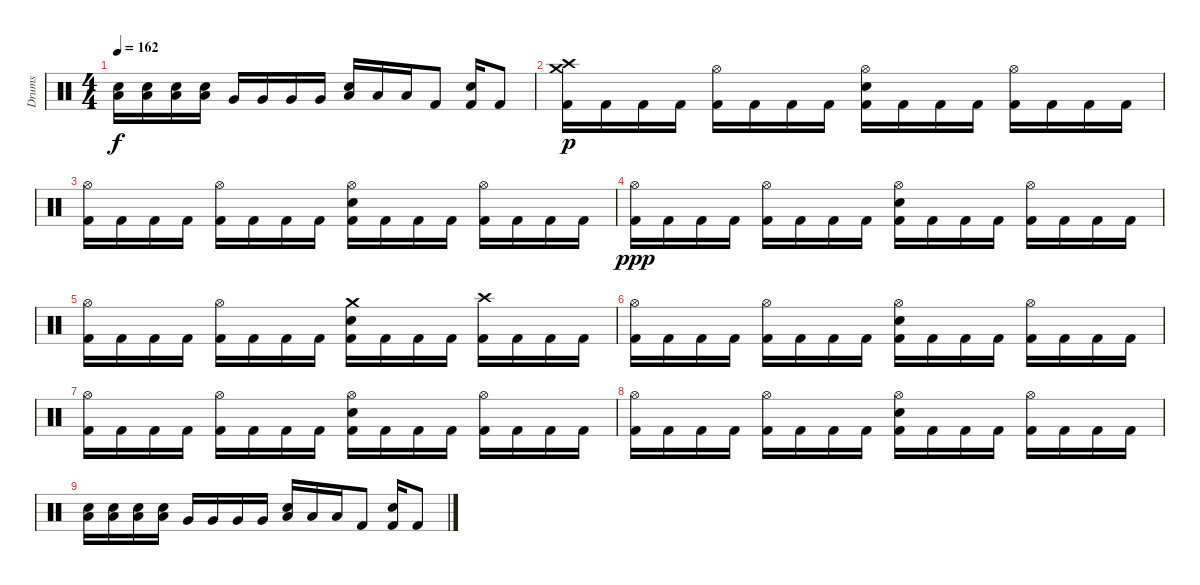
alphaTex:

\track ("Drums" "Drums") {instrument percussion}
\staff {score}
\articulation defaults
\ts (4 4)
\tempo 162
\clef neutral
\ks c
("Electric Snare (hit)" "Low Tom (hit)").16{dy f} ("Electric Snare (hit)" "Low Tom (hit)").16 ("Electric Snare (hit)" "Low Tom (hit)").16 ("Electric Snare (hit)" "Low Tom (hit)").16 "Very Low Tom (hit)".16 "Very Low Tom (hit)".16 "Very Low Tom (hit)".16 "Very Low Tom (hit)".16 ("Electric Snare (hit)" "Low Floor Tom (hit)").16 "Low Floor Tom (hit)".16 "Low Floor Tom (hit)".16 "Kick (hit) 2".8 ("Electric Snare (hit)" "Kick (hit) 2").16 "Kick (hit) 2".8 |
("Crash medium (hit)" "Crash high (hit)" "Kick (hit) 2").16{dy p} "Kick (hit) 2".16 "Kick (hit) 2".16 "Kick (hit) 2".16 ("Hi-Hat (open)" "Kick (hit) 2").16 "Kick (hit) 2".16 "Kick (hit) 2".16 "Kick (hit) 2".16 ("Electric Snare (hit)" "Hi-Hat (open)" "Kick (hit) 2").16 "Kick (hit) 2".16 "Kick (hit) 2".16 "Kick (hit) 2".16 ("Hi-Hat (open)" "Kick (hit) 2").16 "Kick (hit) 2".16 "Kick (hit) 2".16 "Kick (hit) 2".16 |
("Hi-Hat (open)" "Kick (hit) 2").16 "Kick (hit) 2".16 "Kick (hit) 2".16 "Kick (hit) 2".16 ("Hi-Hat (open)" "Kick (hit) 2").16 "Kick (hit) 2".16 "Kick (hit) 2".16 "Kick (hit) 2".16 ("Electric Snare (hit)" "Hi-Hat (open)" "Kick (hit) 2").16 "Kick (hit) 2".16 "Kick (hit) 2".16 "Kick (hit) 2".16 ("Hi-Hat (open)" "Kick (hit) 2").16 "Kick (hit) 2".16 "Kick (hit) 2".16 "Kick (hit) 2".16 |
("Hi-Hat (open)" "Kick (hit) 2").16{dy ppp} "Kick (hit) 2".16 "Kick (hit) 2".16 "Kick (hit) 2".16 ("Hi-Hat (open)" "Kick (hit) 2").16 "Kick (hit) 2".16 "Kick (hit) 2".16 "Kick (hit) 2".16 ("Electric Snare (hit)" "Hi-Hat (open)" "Kick (hit) 2").16 "Kick (hit) 2".16 "Kick (hit) 2".16 "Kick (hit) 2".16 ("Hi-Hat (open)" "Kick (hit) 2").16 "Kick (hit) 2".16 "Kick (hit) 2".16 "Kick (hit) 2".16 |
("Hi-Hat (open)" "Kick (hit) 2").16 "Kick (hit) 2".16 "Kick (hit) 2".16 "Kick (hit) 2".16 ("Hi-Hat (open)" "Kick (hit) 2").16 "Kick (hit) 2".16 "Kick (hit) 2".16 "Kick (hit) 2".16 ("Crash medium (hit)" "Electric Snare (hit)" "Kick (hit) 2").16 "Kick (hit) 2".16 "Kick (hit) 2".16 "Kick (hit) 2".16 ("Crash high (hit)" "Kick (hit) 2").16 "Kick (hit) 2".16 "Kick (hit) 2".16 "Kick (hit) 2".16 |
("Hi-Hat (open)" "Kick (hit) 2").16 "Kick (hit) 2".16 "Kick (hit) 2".16 "Kick (hit) 2".16 ("Hi-Hat (open)" "Kick (hit) 2").16 "Kick (hit) 2".16 "Kick (hit) 2".16 "Kick (hit) 2".16 ("Electric Snare (hit)" "Hi-Hat (open)" "Kick (hit) 2").16 "Kick (hit) 2".16 "Kick (hit) 2".16 "Kick (hit) 2".16 ("Hi-Hat (open)" "Kick (hit) 2").16 "Kick (hit) 2".16 "Kick (hit) 2".16 "Kick (hit) 2".16 |
("Hi-Hat (open)" "Kick (hit) 2").16 "Kick (hit) 2".16 "Kick (hit) 2".16 "Kick (hit) 2".16 ("Hi-Hat (open)" "Kick (hit) 2").16 "Kick (hit) 2".16 "Kick (hit) 2".16 "Kick (hit) 2".16 ("Electric Snare (hit)" "Hi-Hat (open)" "Kick (hit) 2").16 "Kick (hit) 2".16 "Kick (hit) 2".16 "Kick (hit) 2".16 ("Hi-Hat (open)" "Kick (hit) 2").16 "Kick (hit) 2".16 "Kick (hit) 2".16 "Kick (hit) 2".16 |
("Hi-Hat (open)" "Kick (hit) 2").16 "Kick (hit) 2".16 "Kick (hit) 2".16 "Kick (hit) 2".16 ("Hi-Hat (open)" "Kick (hit) 2").16 "Kick (hit) 2".16 "Kick (hit) 2".16 "Kick (hit) 2".16 ("Electric Snare (hit)" "Hi-Hat (open)" "Kick (hit) 2").16 "Kick (hit) 2".16 "Kick (hit) 2".16 "Kick (hit) 2".16 ("Hi-Hat (open)" "Kick (hit) 2").16 "Kick (hit) 2".16 "Kick (hit) 2".16 "Kick (hit) 2".16 |
("Electric Snare (hit)" "Low Tom (hit)").16 ("Electric Snare (hit)" "Low Tom (hit)").16 ("Electric Snare (hit)" "Low Tom (hit)").16 ("Electric Snare (hit)" "Low Tom (hit)").16 "Very Low Tom (hit)".16 "Very Low Tom (hit)".16 "Very Low Tom (hit)".16 "Very Low Tom (hit)".16 ("Electric Snare (hit)" "Low Floor Tom (hit)").16 "Low Floor Tom (hit)".16 "Low Floor Tom (hit)".16 "Kick (hit) 2".8 ("Electric Snare (hit)" "Kick (hit) 2").16 "Kick (hit) 2".8
